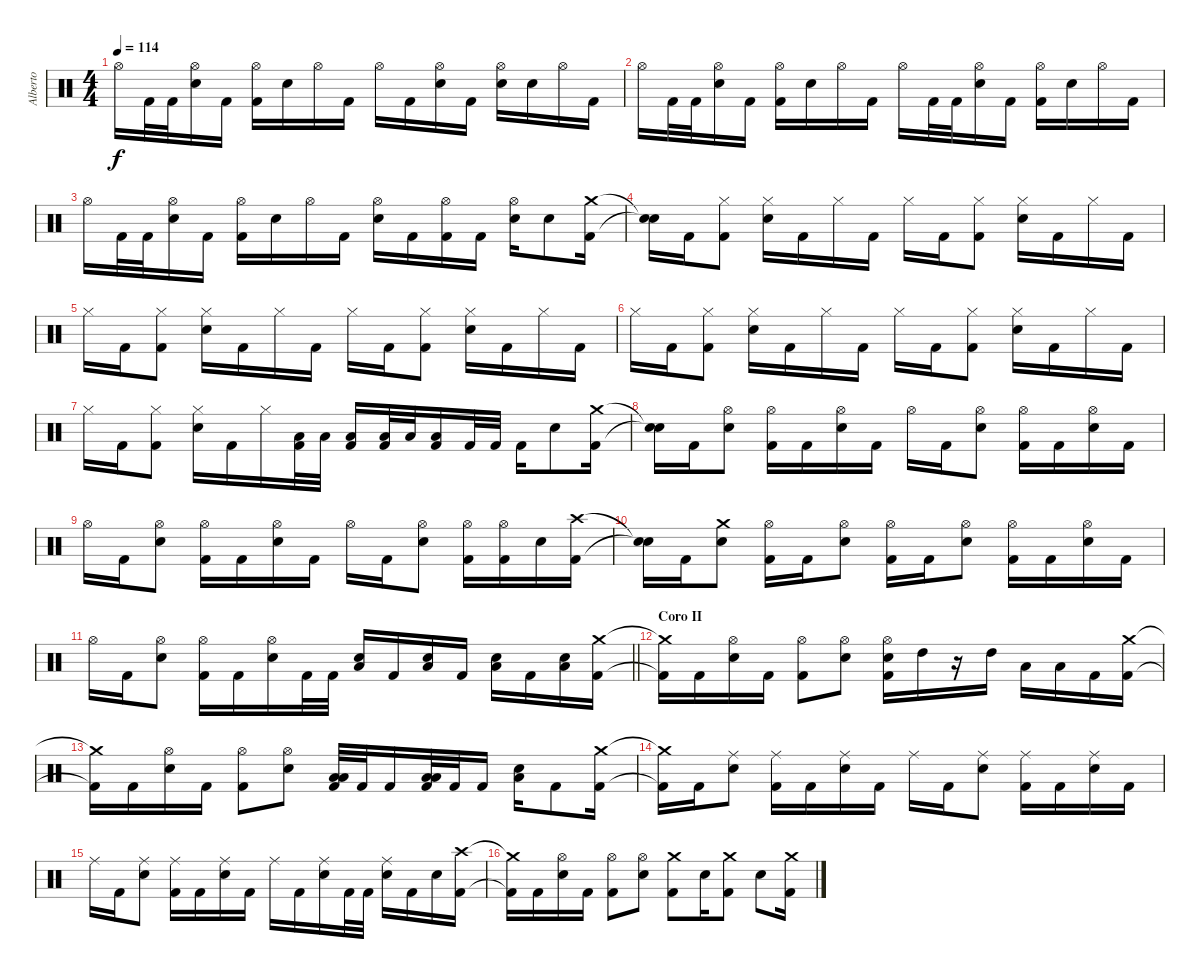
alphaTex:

\track ("Alberto" "Alberto") {instrument percussion}
\staff
\articulation defaults
\ts (4 4)
\tempo 114
\clef neutral
\ks c "Hi-Hat (open)".16{dy f} "Kick (hit) 2".32 "Kick (hit) 2".32
("Hi-Hat (open)" "Electric Snare (hit)").16 "Kick (hit) 2".16 ("Hi-Hat (open)" "Kick (hit) 2").16 "Electric Snare (hit)".16 "Hi-Hat (open)".16 "Kick (hit) 2".16 "Hi-Hat (open)".16 "Kick (hit) 2".16 ("Hi-Hat (open)" "Electric Snare (hit)").16 "Kick (hit) 2".16 ("Hi-Hat (open)" "Electric Snare (hit)").16 "Electric Snare (hit)".16 "Hi-Hat (open)".16 "Kick (hit) 2".16 |
"Hi-Hat (open)".16 "Kick (hit) 2".32 "Kick (hit) 2".32 ("Hi-Hat (open)" "Electric Snare (hit)").16 "Kick (hit) 2".16 ("Hi-Hat (open)" "Kick (hit) 2").16 "Electric Snare (hit)".16 "Hi-Hat (open)".16 "Kick (hit) 2".16 "Hi-Hat (open)".16 "Kick (hit) 2".32 "Kick (hit) 2".32 ("Hi-Hat (open)" "Electric Snare (hit)").16 "Kick (hit) 2".16 ("Hi-Hat (open)" "Kick (hit) 2").16 "Electric Snare (hit)".16 "Hi-Hat (open)".16 "Kick (hit) 2".16 |
"Hi-Hat (open)".16 "Kick (hit) 2".32 "Kick (hit) 2".32 ("Hi-Hat (open)" "Electric Snare (hit)").16 "Kick (hit) 2".16 ("Hi-Hat (open)" "Kick (hit) 2").16 "Electric Snare (hit)".16 "Hi-Hat (open)".16 "Kick (hit) 2".16 ("Hi-Hat (open)" "Electric Snare (hit)").16 "Kick (hit) 2".16 ("Hi-Hat (open)" "Kick (hit) 2").16 "Kick (hit) 2".16 ("Hi-Hat (open)" "Electric Snare (hit)").16 "Electric Snare (hit)".8 ("Crash medium (hit)" "Kick (hit) 2").16 |
("Snare (hit)"{t} "Snare (hit)"{t}).16 "Kick (hit) 2".16 ("Hi-Hat (closed)" "Kick (hit) 2").8 ("Hi-Hat (closed)" "Electric Snare (hit)").16 "Kick (hit) 2".16 "Hi-Hat (closed)".16 "Kick (hit) 2".16 "Hi-Hat (closed)".16 "Kick (hit) 2".16 ("Hi-Hat (closed)" "Kick (hit) 2").8 ("Hi-Hat (closed)" "Electric Snare (hit)").16 "Kick (hit) 2".16 "Hi-Hat (closed)".16 "Kick (hit) 2".16 |
"Hi-Hat (closed)".16 "Kick (hit) 2".16 ("Hi-Hat (closed)" "Kick (hit) 2").8 ("Hi-Hat (closed)" "Electric Snare (hit)").16 "Kick (hit) 2".16 "Hi-Hat (closed)".16 "Kick (hit) 2".16 "Hi-Hat (closed)".16 "Kick (hit) 2".16 ("Hi-Hat (closed)" "Kick (hit) 2").8 ("Hi-Hat (closed)" "Electric Snare (hit)").16 "Kick (hit) 2".16 "Hi-Hat (closed)".16 "Kick (hit) 2".16 |
"Hi-Hat (closed)".16 "Kick (hit) 2".16 ("Hi-Hat (closed)" "Kick (hit) 2").8 ("Hi-Hat (closed)" "Electric Snare (hit)").16 "Kick (hit) 2".16 "Hi-Hat (closed)".16 "Kick (hit) 2".16 "Hi-Hat (closed)".16 "Kick (hit) 2".16 ("Hi-Hat (closed)" "Kick (hit) 2").8 ("Hi-Hat (closed)" "Electric Snare (hit)").16 "Kick (hit) 2".16 "Hi-Hat (closed)".16 "Kick (hit) 2".16 |
"Hi-Hat (closed)".16 "Kick (hit) 2".16 ("Hi-Hat (closed)" "Kick (hit) 2").8 ("Hi-Hat (closed)" "Electric Snare (hit)").16 "Kick (hit) 2".16 "Hi-Hat (closed)".16 ("Low Tom (hit)" "Kick (hit) 2").32 "Low Tom (hit)".32 ("Low Floor Tom (hit)" "Kick (hit) 2").16 ("Low Tom (hit)" "Kick (hit) 2").32 "Low Tom (hit)".32 ("Low Floor Tom (hit)" "Kick (hit) 2").16 "Kick (hit) 2".32 "Kick (hit) 2".32 "Kick (hit) 2".16 "Electric Snare (hit)".8 ("Crash medium (hit)" "Kick (hit) 2").16 |
("Snare (hit)"{t} "Snare (hit)"{t}).16 "Kick (hit) 2".16 ("Hi-Hat (open)" "Electric Snare (hit)").8 ("Hi-Hat (open)" "Kick (hit) 2").16 "Kick (hit) 2".16 ("Hi-Hat (open)" "Electric Snare (hit)").16 "Kick (hit) 2".16 "Hi-Hat (open)".16 "Kick (hit) 2".16 ("Hi-Hat (open)" "Electric Snare (hit)").8 ("Hi-Hat (open)" "Kick (hit) 2").16 "Kick (hit) 2".16 ("Hi-Hat (open)" "Electric Snare (hit)").16 "Kick (hit) 2".16 |
"Hi-Hat (open)".16 "Kick (hit) 2".16 ("Hi-Hat (open)" "Electric Snare (hit)").8 ("Hi-Hat (open)" "Kick (hit) 2").16 "Kick (hit) 2".16 ("Hi-Hat (open)" "Electric Snare (hit)").16 "Kick (hit) 2".16 "Hi-Hat (open)".16 "Kick (hit) 2".16 ("Hi-Hat (open)" "Electric Snare (hit)").8 ("Hi-Hat (open)" "Kick (hit) 2").16 ("Hi-Hat (open)" "Kick (hit) 2").16 "Electric Snare (hit)".16 ("Crash high (hit)" "Kick (hit) 2").16 |
("Snare (hit)"{t} "Snare (hit)"{t}).16 "Kick (hit) 2".16 ("Crash medium (hit)" "Electric Snare (hit)").8 ("Hi-Hat (open)" "Kick (hit) 2").16 "Kick (hit) 2".16 ("Hi-Hat (open)" "Electric Snare (hit)").8 ("Hi-Hat (open)" "Kick (hit) 2").16 "Kick (hit) 2".16 ("Hi-Hat (open)" "Electric Snare (hit)").8 ("Hi-Hat (open)" "Kick (hit) 2").16 "Kick (hit) 2".16 ("Hi-Hat (open)" "Electric Snare (hit)").16 "Kick (hit) 2".16 |
\barLineRight lightlight "Hi-Hat (open)".16 "Kick (hit) 2".16
("Hi-Hat (open)" "Electric Snare (hit)").8 ("Hi-Hat (open)" "Kick (hit) 2").16 "Kick (hit) 2".16 ("Hi-Hat (open)" "Electric Snare (hit)").16 "Kick (hit) 2".32 "Kick (hit) 2".32 ("Electric Snare (hit)" "Low Floor Tom (hit)").16 "Kick (hit) 2".16 ("Electric Snare (hit)" "Low Floor Tom (hit)").16 "Kick (hit) 2".16 ("Electric Snare (hit)" "Low Floor Tom (hit)").16 "Kick (hit) 2".16 ("Electric Snare (hit)" "Low Floor Tom (hit)").16 ("Crash medium (hit)" "Kick (hit) 2").16 |
\section ("" "Coro II")
("Crash medium (hit)"{t} "Kick (hit) 2"{t}).16 "Kick (hit) 2".16 ("Hi-Hat (open)" "Electric Snare (hit)").16 "Kick (hit) 2".16 ("Hi-Hat (open)" "Kick (hit) 2").8 ("Hi-Hat (open)" "Electric Snare (hit)").8 ("Hi-Hat (open)" "Electric Snare (hit)" "Kick (hit) 2").16 "High Tom (hit)".16 r.16 "High Tom (hit)".16 "Low Tom (hit)".16 "Low Tom (hit)".16 "Kick (hit) 2".16 ("Crash medium (hit)" "Kick (hit) 2").16 |
("Crash medium (hit)"{t} "Kick (hit) 2"{t}).16 "Kick (hit) 2".16 ("Hi-Hat (open)" "Electric Snare (hit)").16 "Kick (hit) 2".16 ("Hi-Hat (open)" "Kick (hit) 2").8 ("Hi-Hat (open)" "Electric Snare (hit)").8 ("Low Tom (hit)" "Low Floor Tom (hit)" "Kick (hit) 2").32 "Kick (hit) 2".32 "Kick (hit) 2".16 ("Low Tom (hit)" "Low Floor Tom (hit)" "Kick (hit) 2").32 "Kick (hit) 2".32 "Kick (hit) 2".16 ("Electric Snare (hit)" "Low Floor Tom (hit)").16 "Kick (hit) 2".8 ("Crash medium (hit)" "Kick (hit) 2").16 |
("Crash medium (hit)"{t} "Kick (hit) 2"{t}).16 "Kick (hit) 2".16 ("Ride (middle)" "Electric Snare (hit)").8 ("Ride (middle)" "Kick (hit) 2").16 "Kick (hit) 2".16 ("Ride (middle)" "Electric Snare (hit)").16 "Kick (hit) 2".16 "Ride (middle)".16 "Kick (hit) 2".16 ("Ride (middle)" "Electric Snare (hit)").8 ("Ride (middle)" "Kick (hit) 2").16 "Kick (hit) 2".16 ("Ride (middle)" "Electric Snare (hit)").16 "Kick (hit) 2".16 |
"Ride (middle)".16 "Kick (hit) 2".16 ("Ride (middle)" "Electric Snare (hit)").8 ("Ride (middle)" "Kick (hit) 2").16 "Kick (hit) 2".16 ("Ride (middle)" "Electric Snare (hit)").16 "Kick (hit) 2".16 "Ride (middle)".16 "Kick (hit) 2".16 ("Ride (middle)" "Electric Snare (hit)").16 "Kick (hit) 2".32 "Kick (hit) 2".32 ("Ride (middle)" "Electric Snare (hit)").16 "Kick (hit) 2".16 "Electric Snare (hit)".16 ("Crash high (hit)" "Kick (hit) 2").16 |
("Crash medium (hit)"{t} "Kick (hit) 2"{t}).16 "Kick (hit) 2".16 ("Hi-Hat (open)" "Electric Snare (hit)").16 "Kick (hit) 2".16 ("Hi-Hat (open)" "Kick (hit) 2").8 ("Hi-Hat (open)" "Electric Snare (hit)").8 ("Crash medium (hit)" "Kick (hit) 2").8 "Electric Snare (hit)".16 ("Crash medium (hit)" "Kick (hit) 2").8 "Electric Snare (hit)".8 ("Crash medium (hit)" "Kick (hit) 2").16
